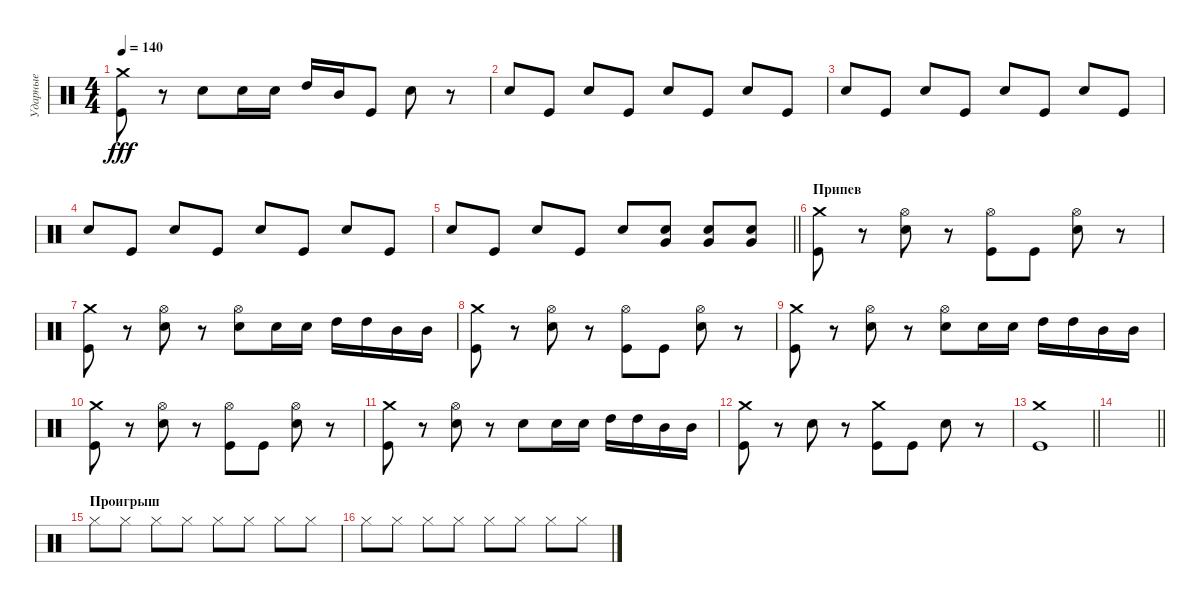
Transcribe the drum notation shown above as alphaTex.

\track ("Ударные" "Ударные") {instrument percussion}
\staff {score}
\articulation defaults
\ts (4 4)
\tempo 140
\clef neutral
\ks c
("Crash medium (hit)" "Kick (hit)").8{dy fff} r.8 "Electric Snare (hit)".8 "Electric Snare (hit)".16 "Electric Snare (hit)".16 "High Tom (hit)".16 "Mid Tom (hit)".16 "Kick (hit)".8 "Electric Snare (hit)".8 r.8 |
"Electric Snare (hit)".8 "Kick (hit)".8 "Electric Snare (hit)".8 "Kick (hit)".8 "Electric Snare (hit)".8 "Kick (hit)".8 "Electric Snare (hit)".8 "Kick (hit)".8 |
"Electric Snare (hit)".8 "Kick (hit)".8 "Electric Snare (hit)".8 "Kick (hit)".8 "Electric Snare (hit)".8 "Kick (hit)".8 "Electric Snare (hit)".8 "Kick (hit)".8 |
"Electric Snare (hit)".8 "Kick (hit)".8 "Electric Snare (hit)".8 "Kick (hit)".8 "Electric Snare (hit)".8 "Kick (hit)".8 "Electric Snare (hit)".8 "Kick (hit)".8 |
\barLineRight lightlight "Electric Snare (hit)".8 "Kick (hit)".8 "Electric Snare (hit)".8 "Kick (hit)".8 "Electric Snare (hit)".8
("Electric Snare (hit)" "Very Low Tom (hit)").8 ("Electric Snare (hit)" "Very Low Tom (hit)").8 ("Electric Snare (hit)" "Very Low Tom (hit)").8 |
\section ("" "Припев")
("Crash medium (hit)" "Kick (hit)").8 r.8 ("Hi-Hat (open)" "Electric Snare (hit)").8 r.8 ("Hi-Hat (open)" "Kick (hit)").8 "Kick (hit)".8 ("Hi-Hat (open)" "Electric Snare (hit)").8 r.8 |
("Crash medium (hit)" "Kick (hit)").8 r.8 ("Hi-Hat (open)" "Electric Snare (hit)").8 r.8 ("Hi-Hat (open)" "Electric Snare (hit)").8 "Electric Snare (hit)".16 "Electric Snare (hit)".16 "High Tom (hit)".16 "High Tom (hit)".16 "Mid Tom (hit)".16 "Mid Tom (hit)".16 |
("Crash medium (hit)" "Kick (hit)").8 r.8 ("Hi-Hat (open)" "Electric Snare (hit)").8 r.8 ("Hi-Hat (open)" "Kick (hit)").8 "Kick (hit)".8 ("Hi-Hat (open)" "Electric Snare (hit)").8 r.8 |
("Crash medium (hit)" "Kick (hit)").8 r.8 ("Hi-Hat (open)" "Electric Snare (hit)").8 r.8 ("Hi-Hat (open)" "Electric Snare (hit)").8 "Electric Snare (hit)".16 "Electric Snare (hit)".16 "High Tom (hit)".16 "High Tom (hit)".16 "Mid Tom (hit)".16 "Mid Tom (hit)".16 |
("Crash medium (hit)" "Kick (hit)").8 r.8 ("Hi-Hat (open)" "Electric Snare (hit)").8 r.8 ("Hi-Hat (open)" "Kick (hit)").8 "Kick (hit)".8 ("Hi-Hat (open)" "Electric Snare (hit)").8 r.8 |
("Crash medium (hit)" "Kick (hit)").8 r.8 ("Hi-Hat (open)" "Electric Snare (hit)").8 r.8 "Electric Snare (hit)".8 "Electric Snare (hit)".16 "Electric Snare (hit)".16 "High Tom (hit)".16 "High Tom (hit)".16 "Mid Tom (hit)".16 "Mid Tom (hit)".16 |
("Crash medium (hit)" "Kick (hit)").8 r.8 "Electric Snare (hit)".8 r.8 ("Crash medium (hit)" "Kick (hit)").8 "Kick (hit)".8 "Electric Snare (hit)".8 r.8 |
\barLineRight lightlight
("Crash medium (hit)" "Kick (hit)").1 |
\barLineRight lightlight
|
\section ("" "Проигрыш")
"Hi-Hat (closed)".8 "Hi-Hat (closed)".8 "Hi-Hat (closed)".8 "Hi-Hat (closed)".8 "Hi-Hat (closed)".8 "Hi-Hat (closed)".8 "Hi-Hat (closed)".8 "Hi-Hat (closed)".8 |
"Hi-Hat (closed)".8 "Hi-Hat (closed)".8 "Hi-Hat (closed)".8 "Hi-Hat (closed)".8 "Hi-Hat (closed)".8 "Hi-Hat (closed)".8 "Hi-Hat (closed)".8 "Hi-Hat (closed)".8
